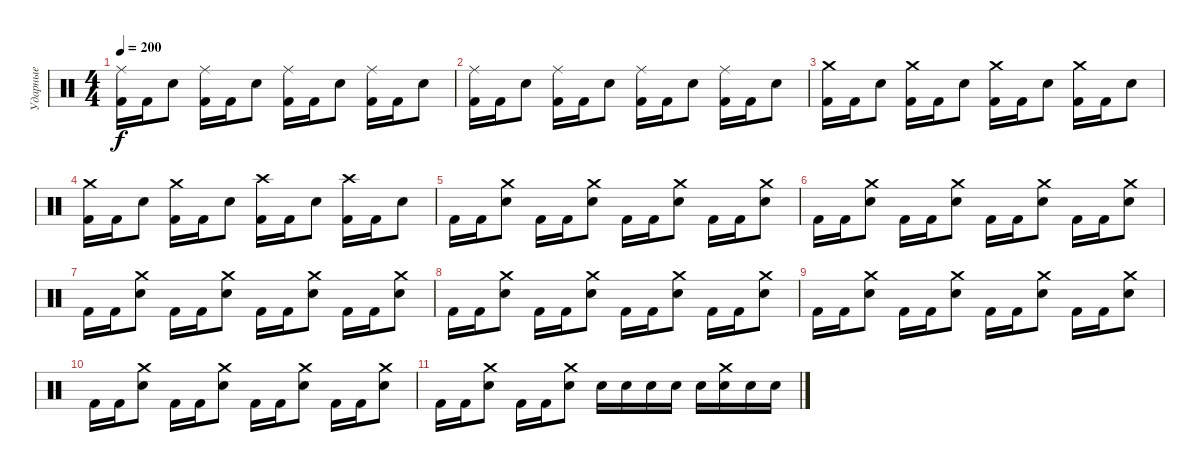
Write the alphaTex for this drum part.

\track ("Ударные" "Ударные") {instrument percussion}
\staff {score}
\articulation defaults
\ts (4 4)
\tempo 200
\clef neutral
\ks c
("Kick (hit) 2" "Ride (middle)").16{dy f} "Kick (hit) 2".16 "Electric Snare (hit)".8 ("Kick (hit) 2" "Ride (middle)").16 "Kick (hit) 2".16 "Electric Snare (hit)".8 ("Kick (hit) 2" "Ride (middle)").16 "Kick (hit) 2".16 "Electric Snare (hit)".8 ("Kick (hit) 2" "Ride (middle)").16 "Kick (hit) 2".16 "Electric Snare (hit)".8 |
("Kick (hit) 2" "Ride (middle)").16 "Kick (hit) 2".16 "Electric Snare (hit)".8 ("Kick (hit) 2" "Ride (middle)").16 "Kick (hit) 2".16 "Electric Snare (hit)".8 ("Kick (hit) 2" "Ride (middle)").16 "Kick (hit) 2".16 "Electric Snare (hit)".8 ("Kick (hit) 2" "Ride (middle)").16 "Kick (hit) 2".16 "Electric Snare (hit)".8 |
("Kick (hit) 2" "Crash medium (hit)").16 "Kick (hit) 2".16 "Electric Snare (hit)".8 ("Kick (hit) 2" "Crash medium (hit)").16 "Kick (hit) 2".16 "Electric Snare (hit)".8 ("Kick (hit) 2" "Crash medium (hit)").16 "Kick (hit) 2".16 "Electric Snare (hit)".8 ("Kick (hit) 2" "Crash medium (hit)").16 "Kick (hit) 2".16 "Electric Snare (hit)".8 |
("Kick (hit) 2" "Crash medium (hit)").16 "Kick (hit) 2".16 "Electric Snare (hit)".8 ("Kick (hit) 2" "Crash medium (hit)").16 "Kick (hit) 2".16 "Electric Snare (hit)".8 ("Kick (hit) 2" "Crash high (hit)").16 "Kick (hit) 2".16 "Electric Snare (hit)".8 ("Kick (hit) 2" "Crash high (hit)").16 "Kick (hit) 2".16 "Electric Snare (hit)".8 |
"Kick (hit) 2".16 "Kick (hit) 2".16 ("Electric Snare (hit)" "Crash medium (hit)").8 "Kick (hit) 2".16 "Kick (hit) 2".16 ("Electric Snare (hit)" "Crash medium (hit)").8 "Kick (hit) 2".16 "Kick (hit) 2".16 ("Electric Snare (hit)" "Crash medium (hit)").8 "Kick (hit) 2".16 "Kick (hit) 2".16 ("Electric Snare (hit)" "Crash medium (hit)").8 |
"Kick (hit) 2".16 "Kick (hit) 2".16 ("Electric Snare (hit)" "Crash medium (hit)").8 "Kick (hit) 2".16 "Kick (hit) 2".16 ("Electric Snare (hit)" "Crash medium (hit)").8 "Kick (hit) 2".16 "Kick (hit) 2".16 ("Electric Snare (hit)" "Crash medium (hit)").8 "Kick (hit) 2".16 "Kick (hit) 2".16 ("Electric Snare (hit)" "Crash medium (hit)").8 |
"Kick (hit) 2".16 "Kick (hit) 2".16 ("Electric Snare (hit)" "Crash medium (hit)").8 "Kick (hit) 2".16 "Kick (hit) 2".16 ("Electric Snare (hit)" "Crash medium (hit)").8 "Kick (hit) 2".16 "Kick (hit) 2".16 ("Electric Snare (hit)" "Crash medium (hit)").8 "Kick (hit) 2".16 "Kick (hit) 2".16 ("Electric Snare (hit)" "Crash medium (hit)").8 |
"Kick (hit) 2".16 "Kick (hit) 2".16 ("Electric Snare (hit)" "Crash medium (hit)").8 "Kick (hit) 2".16 "Kick (hit) 2".16 ("Electric Snare (hit)" "Crash medium (hit)").8 "Kick (hit) 2".16 "Kick (hit) 2".16 ("Electric Snare (hit)" "Crash medium (hit)").8 "Kick (hit) 2".16 "Kick (hit) 2".16 ("Electric Snare (hit)" "Crash medium (hit)").8 |
"Kick (hit) 2".16 "Kick (hit) 2".16 ("Electric Snare (hit)" "Crash medium (hit)").8 "Kick (hit) 2".16 "Kick (hit) 2".16 ("Electric Snare (hit)" "Crash medium (hit)").8 "Kick (hit) 2".16 "Kick (hit) 2".16 ("Electric Snare (hit)" "Crash medium (hit)").8 "Kick (hit) 2".16 "Kick (hit) 2".16 ("Electric Snare (hit)" "Crash medium (hit)").8 |
"Kick (hit) 2".16 "Kick (hit) 2".16 ("Electric Snare (hit)" "Crash medium (hit)").8 "Kick (hit) 2".16 "Kick (hit) 2".16 ("Electric Snare (hit)" "Crash medium (hit)").8 "Kick (hit) 2".16 "Kick (hit) 2".16 ("Electric Snare (hit)" "Crash medium (hit)").8 "Kick (hit) 2".16 "Kick (hit) 2".16 ("Electric Snare (hit)" "Crash medium (hit)").8 |
"Kick (hit) 2".16 "Kick (hit) 2".16 ("Electric Snare (hit)" "Crash medium (hit)").8 "Kick (hit) 2".16 "Kick (hit) 2".16 ("Electric Snare (hit)" "Crash medium (hit)").8 "Electric Snare (hit)".16 "Electric Snare (hit)".16 "Electric Snare (hit)".16 "Electric Snare (hit)".16 "Electric Snare (hit)".16 ("Electric Snare (hit)" "Crash medium (hit)").16 "Electric Snare (hit)".16 "Electric Snare (hit)".16
